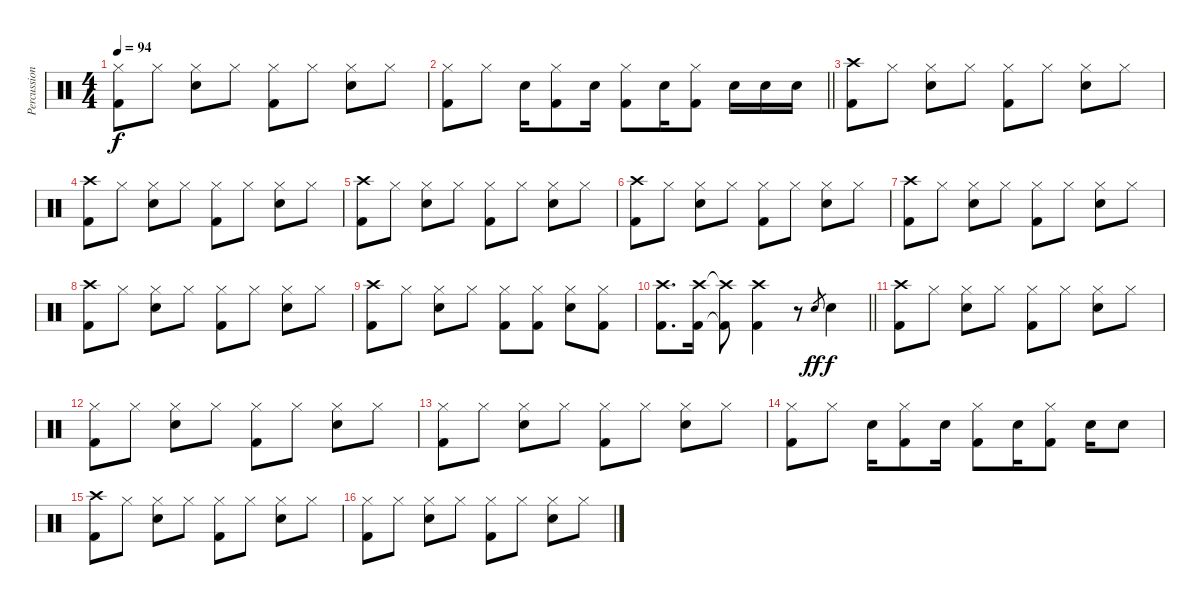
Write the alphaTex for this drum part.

\track ("Percussion" "Percussion") {instrument percussion}
\staff {score}
\articulation defaults
\ts (4 4)
\tempo 94
\clef neutral
\ks c
("Hi-Hat (closed)" "Kick (hit) 2").8{dy f} "Hi-Hat (closed)".8 ("Hi-Hat (closed)" "Snare (hit) 2").8 "Hi-Hat (closed)".8 ("Hi-Hat (closed)" "Kick (hit) 2").8 "Hi-Hat (closed)".8 ("Hi-Hat (closed)" "Snare (hit) 2").8 "Hi-Hat (closed)".8 |
\barLineRight lightlight
("Hi-Hat (closed)" "Kick (hit) 2").8 "Hi-Hat (closed)".8 "Snare (hit) 2".16 ("Hi-Hat (closed)" "Kick (hit) 2").8 "Snare (hit) 2".16 ("Hi-Hat (closed)" "Kick (hit) 2").8 "Snare (hit) 2".16 ("Hi-Hat (closed)" "Kick (hit) 2").8 "Snare (hit) 2".16 "Snare (hit) 2".16 "Snare (hit) 2".16 |
("Crash high (hit)" "Kick (hit) 2").8 "Hi-Hat (closed)".8 ("Hi-Hat (closed)" "Snare (hit) 2").8 "Hi-Hat (closed)".8 ("Hi-Hat (closed)" "Kick (hit) 2").8 "Hi-Hat (closed)".8 ("Hi-Hat (closed)" "Snare (hit) 2").8 "Hi-Hat (closed)".8 |
("Crash high (hit)" "Kick (hit) 2").8 "Hi-Hat (closed)".8 ("Hi-Hat (closed)" "Snare (hit) 2").8 "Hi-Hat (closed)".8 ("Hi-Hat (closed)" "Kick (hit) 2").8 "Hi-Hat (closed)".8 ("Hi-Hat (closed)" "Snare (hit) 2").8 "Hi-Hat (closed)".8 |
("Crash high (hit)" "Kick (hit) 2").8 "Hi-Hat (closed)".8 ("Hi-Hat (closed)" "Snare (hit) 2").8 "Hi-Hat (closed)".8 ("Hi-Hat (closed)" "Kick (hit) 2").8 "Hi-Hat (closed)".8 ("Hi-Hat (closed)" "Snare (hit) 2").8 "Hi-Hat (closed)".8 |
("Crash high (hit)" "Kick (hit) 2").8 "Hi-Hat (closed)".8 ("Hi-Hat (closed)" "Snare (hit) 2").8 "Hi-Hat (closed)".8 ("Hi-Hat (closed)" "Kick (hit) 2").8 "Hi-Hat (closed)".8 ("Hi-Hat (closed)" "Snare (hit) 2").8 "Hi-Hat (closed)".8 |
("Crash high (hit)" "Kick (hit) 2").8 "Hi-Hat (closed)".8 ("Hi-Hat (closed)" "Snare (hit) 2").8 "Hi-Hat (closed)".8 ("Hi-Hat (closed)" "Kick (hit) 2").8 "Hi-Hat (closed)".8 ("Hi-Hat (closed)" "Snare (hit) 2").8 "Hi-Hat (closed)".8 |
("Crash high (hit)" "Kick (hit) 2").8 "Hi-Hat (closed)".8 ("Hi-Hat (closed)" "Snare (hit) 2").8 "Hi-Hat (closed)".8 ("Hi-Hat (closed)" "Kick (hit) 2").8 "Hi-Hat (closed)".8 ("Hi-Hat (closed)" "Snare (hit) 2").8 "Hi-Hat (closed)".8 |
("Crash high (hit)" "Kick (hit) 2").8 "Hi-Hat (closed)".8 ("Hi-Hat (closed)" "Snare (hit) 2").8 "Hi-Hat (closed)".8 ("Hi-Hat (closed)" "Kick (hit) 2").8 ("Hi-Hat (closed)" "Kick (hit) 2").8 ("Hi-Hat (closed)" "Snare (hit) 2").8 ("Hi-Hat (closed)" "Kick (hit) 2").8 |
\barLineRight lightlight
("Crash high (hit)" "Kick (hit) 2").8{d} ("Crash high (hit)" "Kick (hit) 2").16 ("Crash high (hit)"{t} "Kick (hit) 2"{t}).8 ("Crash high (hit)" "Kick (hit) 2").4 r.8 "Snare (hit) 2".8{gr dy ff} "Snare (hit) 2".4{dy f} |
("Crash high (hit)" "Kick (hit) 2").8 "Hi-Hat (closed)".8 ("Hi-Hat (closed)" "Snare (hit) 2").8 "Hi-Hat (closed)".8 ("Hi-Hat (closed)" "Kick (hit) 2").8 "Hi-Hat (closed)".8 ("Hi-Hat (closed)" "Snare (hit) 2").8 "Hi-Hat (closed)".8 |
("Hi-Hat (closed)" "Kick (hit) 2").8 "Hi-Hat (closed)".8 ("Hi-Hat (closed)" "Snare (hit) 2").8 "Hi-Hat (closed)".8 ("Hi-Hat (closed)" "Kick (hit) 2").8 "Hi-Hat (closed)".8 ("Hi-Hat (closed)" "Snare (hit) 2").8 "Hi-Hat (closed)".8 |
("Hi-Hat (closed)" "Kick (hit) 2").8 "Hi-Hat (closed)".8 ("Hi-Hat (closed)" "Snare (hit) 2").8 "Hi-Hat (closed)".8 ("Hi-Hat (closed)" "Kick (hit) 2").8 "Hi-Hat (closed)".8 ("Hi-Hat (closed)" "Snare (hit) 2").8 "Hi-Hat (closed)".8 |
("Hi-Hat (closed)" "Kick (hit) 2").8 "Hi-Hat (closed)".8 "Snare (hit) 2".16 ("Hi-Hat (closed)" "Kick (hit) 2").8 "Snare (hit) 2".16 ("Hi-Hat (closed)" "Kick (hit) 2").8 "Snare (hit) 2".16 ("Hi-Hat (closed)" "Kick (hit) 2").8 "Snare (hit) 2".16 "Snare (hit) 2".8 |
("Crash high (hit)" "Kick (hit) 2").8 "Hi-Hat (closed)".8 ("Hi-Hat (closed)" "Snare (hit) 2").8 "Hi-Hat (closed)".8 ("Hi-Hat (closed)" "Kick (hit) 2").8 "Hi-Hat (closed)".8 ("Hi-Hat (closed)" "Snare (hit) 2").8 "Hi-Hat (closed)".8 |
("Hi-Hat (closed)" "Kick (hit) 2").8 "Hi-Hat (closed)".8 ("Hi-Hat (closed)" "Snare (hit) 2").8 "Hi-Hat (closed)".8 ("Hi-Hat (closed)" "Kick (hit) 2").8 "Hi-Hat (closed)".8 ("Hi-Hat (closed)" "Snare (hit) 2").8 "Hi-Hat (closed)".8
